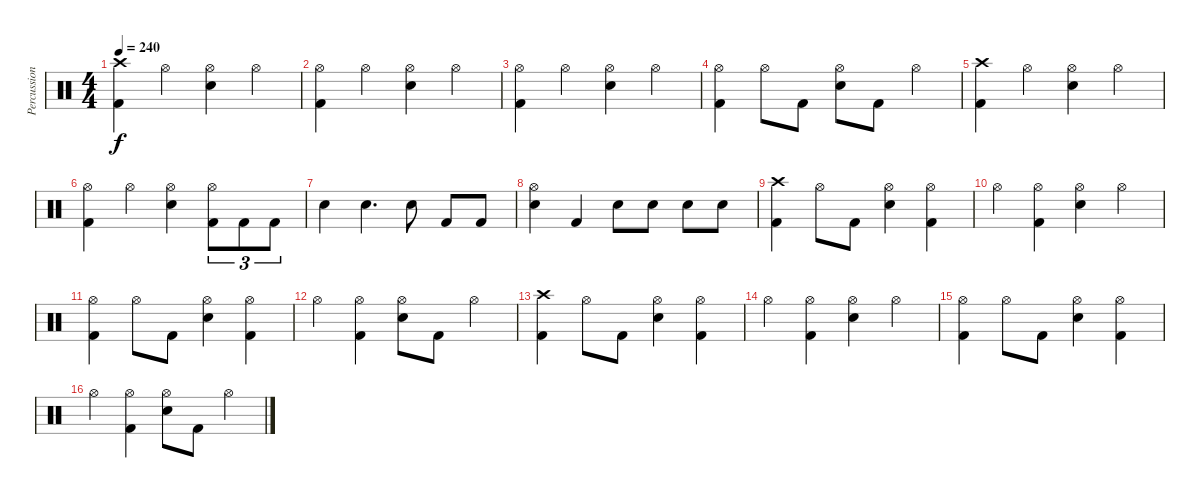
\track ("Percussion" "Percussion") {instrument percussion}
\staff {score}
\articulation defaults
\ts (4 4)
\tempo 240
\clef neutral
\ks c
("Crash high (hit)" "Kick (hit) 2").4{dy f} "Hi-Hat (open)".4 ("Hi-Hat (open)" "Snare (hit) 2").4 "Hi-Hat (open)".4 |
("Hi-Hat (open)" "Kick (hit) 2").4 "Hi-Hat (open)".4 ("Hi-Hat (open)" "Snare (hit) 2").4 "Hi-Hat (open)".4 |
("Hi-Hat (open)" "Kick (hit) 2").4 "Hi-Hat (open)".4 ("Hi-Hat (open)" "Snare (hit) 2").4 "Hi-Hat (open)".4 |
("Hi-Hat (open)" "Kick (hit) 2").4 "Hi-Hat (open)".8 "Kick (hit) 2".8 ("Hi-Hat (open)" "Snare (hit) 2").8 "Kick (hit) 2".8 "Hi-Hat (open)".4 |
("Crash high (hit)" "Kick (hit) 2").4 "Hi-Hat (open)".4 ("Hi-Hat (open)" "Snare (hit) 2").4 "Hi-Hat (open)".4 |
("Hi-Hat (open)" "Kick (hit) 2").4 "Hi-Hat (open)".4 ("Hi-Hat (open)" "Snare (hit) 2").4 ("Hi-Hat (open)" "Kick (hit) 2").8{tu (3 2)} "Kick (hit) 2".8{tu (3 2)} "Kick (hit) 2".8{tu (3 2)} |
"Snare (hit) 2".4 "Snare (hit) 2".4{d} "Snare (hit) 2".8 "Kick (hit) 2".8 "Kick (hit) 2".8 |
("Hi-Hat (open)" "Snare (hit) 2").4 "Kick (hit) 2".4 "Snare (hit) 2".8 "Snare (hit) 2".8 "Snare (hit) 2".8 "Snare (hit) 2".8 |
("Crash high (hit)" "Kick (hit) 2").4 "Hi-Hat (open)".8 "Kick (hit) 2".8 ("Hi-Hat (open)" "Snare (hit) 2").4 ("Hi-Hat (open)" "Kick (hit) 2").4 |
"Hi-Hat (open)".4 ("Hi-Hat (open)" "Kick (hit) 2").4 ("Hi-Hat (open)" "Snare (hit) 2").4 "Hi-Hat (open)".4 |
("Hi-Hat (open)" "Kick (hit) 2").4 "Hi-Hat (open)".8 "Kick (hit) 2".8 ("Hi-Hat (open)" "Snare (hit) 2").4 ("Hi-Hat (open)" "Kick (hit) 2").4 |
"Hi-Hat (open)".4 ("Hi-Hat (open)" "Kick (hit) 2").4 ("Hi-Hat (open)" "Snare (hit) 2").8 "Kick (hit) 2".8 "Hi-Hat (open)".4 |
("Crash high (hit)" "Kick (hit) 2").4 "Hi-Hat (open)".8 "Kick (hit) 2".8 ("Hi-Hat (open)" "Snare (hit) 2").4 ("Hi-Hat (open)" "Kick (hit) 2").4 |
"Hi-Hat (open)".4 ("Hi-Hat (open)" "Kick (hit) 2").4 ("Hi-Hat (open)" "Snare (hit) 2").4 "Hi-Hat (open)".4 |
("Hi-Hat (open)" "Kick (hit) 2").4 "Hi-Hat (open)".8 "Kick (hit) 2".8 ("Hi-Hat (open)" "Snare (hit) 2").4 ("Hi-Hat (open)" "Kick (hit) 2").4 |
"Hi-Hat (open)".4 ("Hi-Hat (open)" "Kick (hit) 2").4 ("Hi-Hat (open)" "Snare (hit) 2").8 "Kick (hit) 2".8 "Hi-Hat (open)".4
